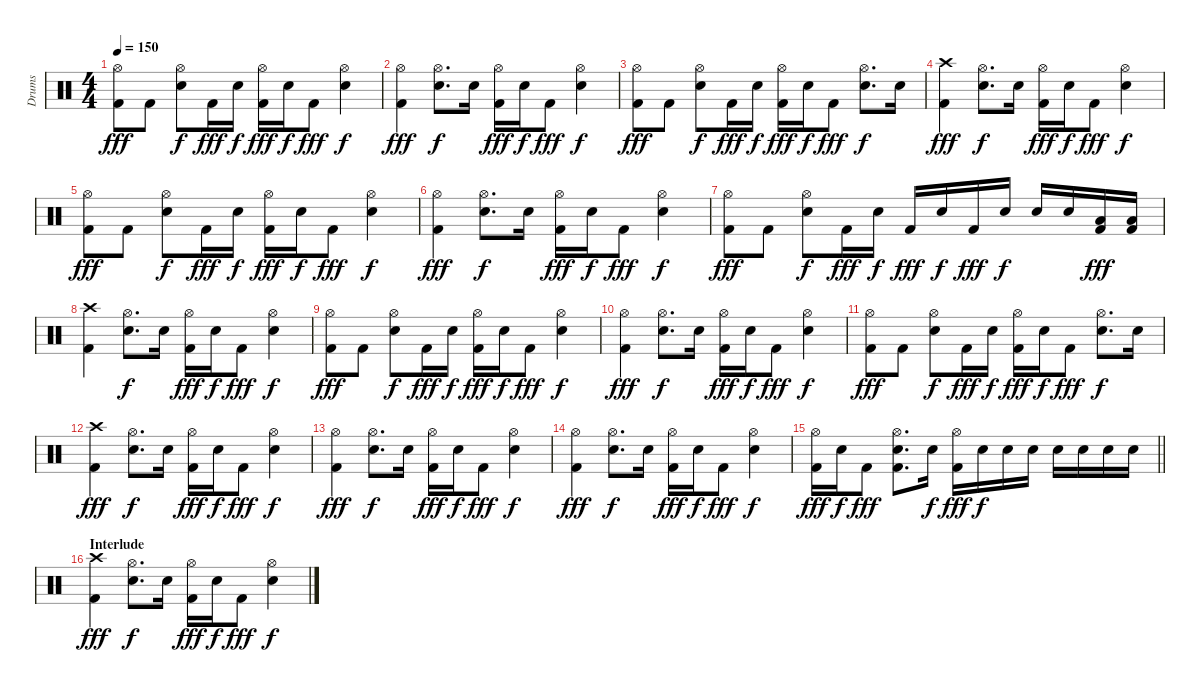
\track ("Drums" "Drums") {instrument percussion}
\staff {score}
\articulation defaults
\ts (4 4)
\tempo 150
\clef neutral
\ks c
("Hi-Hat (open)" "Kick (hit) 2").8{dy fff} "Kick (hit) 2".8 ("Hi-Hat (open)" "Snare (hit) 2").8{dy f} "Kick (hit) 2".16{dy fff} "Snare (hit) 2".16{dy f} ("Hi-Hat (open)" "Kick (hit) 2").16{dy fff} "Snare (hit) 2".16{dy f} "Kick (hit) 2".8{dy fff} ("Hi-Hat (open)" "Snare (hit) 2").4{dy f} |
("Hi-Hat (open)" "Kick (hit) 2").4{dy fff} ("Hi-Hat (open)" "Snare (hit) 2").8{d dy f} "Snare (hit) 2".16 ("Hi-Hat (open)" "Kick (hit) 2").16{dy fff} "Snare (hit) 2".16{dy f} "Kick (hit) 2".8{dy fff} ("Hi-Hat (open)" "Snare (hit) 2").4{dy f} |
("Hi-Hat (open)" "Kick (hit) 2").8{dy fff} "Kick (hit) 2".8 ("Hi-Hat (open)" "Snare (hit) 2").8{dy f} "Kick (hit) 2".16{dy fff} "Snare (hit) 2".16{dy f} ("Hi-Hat (open)" "Kick (hit) 2").16{dy fff} "Snare (hit) 2".16{dy f} "Kick (hit) 2".8{dy fff} ("Hi-Hat (open)" "Snare (hit) 2").8{d dy f} "Snare (hit) 2".16 |
("Crash high (hit)" "Kick (hit) 2").4{dy fff} ("Hi-Hat (open)" "Snare (hit) 2").8{d dy f} "Snare (hit) 2".16 ("Hi-Hat (open)" "Kick (hit) 2").16{dy fff} "Snare (hit) 2".16{dy f} "Kick (hit) 2".8{dy fff} ("Hi-Hat (open)" "Snare (hit) 2").4{dy f} |
("Hi-Hat (open)" "Kick (hit) 2").8{dy fff} "Kick (hit) 2".8 ("Hi-Hat (open)" "Snare (hit) 2").8{dy f} "Kick (hit) 2".16{dy fff} "Snare (hit) 2".16{dy f} ("Hi-Hat (open)" "Kick (hit) 2").16{dy fff} "Snare (hit) 2".16{dy f} "Kick (hit) 2".8{dy fff} ("Hi-Hat (open)" "Snare (hit) 2").4{dy f} |
("Hi-Hat (open)" "Kick (hit) 2").4{dy fff} ("Hi-Hat (open)" "Snare (hit) 2").8{d dy f} "Snare (hit) 2".16 ("Hi-Hat (open)" "Kick (hit) 2").16{dy fff} "Snare (hit) 2".16{dy f} "Kick (hit) 2".8{dy fff} ("Hi-Hat (open)" "Snare (hit) 2").4{dy f} |
("Hi-Hat (open)" "Kick (hit) 2").8{dy fff} "Kick (hit) 2".8 ("Hi-Hat (open)" "Snare (hit) 2").8{dy f} "Kick (hit) 2".16{dy fff} "Snare (hit) 2".16{dy f} "Kick (hit) 2".16{dy fff} "Snare (hit) 2".16{dy f} "Kick (hit) 2".16{dy fff} "Snare (hit) 2".16{dy f} "Snare (hit) 2".16 "Snare (hit) 2".16 ("Low Tom (hit)" "Kick (hit) 2").16{dy fff} ("Low Tom (hit)" "Kick (hit) 2").16 |
("Crash high (hit)" "Kick (hit) 2").4 ("Hi-Hat (open)" "Snare (hit) 2").8{d dy f} "Snare (hit) 2".16 ("Hi-Hat (open)" "Kick (hit) 2").16{dy fff} "Snare (hit) 2".16{dy f} "Kick (hit) 2".8{dy fff} ("Hi-Hat (open)" "Snare (hit) 2").4{dy f} |
("Hi-Hat (open)" "Kick (hit) 2").8{dy fff} "Kick (hit) 2".8 ("Hi-Hat (open)" "Snare (hit) 2").8{dy f} "Kick (hit) 2".16{dy fff} "Snare (hit) 2".16{dy f} ("Hi-Hat (open)" "Kick (hit) 2").16{dy fff} "Snare (hit) 2".16{dy f} "Kick (hit) 2".8{dy fff} ("Hi-Hat (open)" "Snare (hit) 2").4{dy f} |
("Hi-Hat (open)" "Kick (hit) 2").4{dy fff} ("Hi-Hat (open)" "Snare (hit) 2").8{d dy f} "Snare (hit) 2".16 ("Hi-Hat (open)" "Kick (hit) 2").16{dy fff} "Snare (hit) 2".16{dy f} "Kick (hit) 2".8{dy fff} ("Hi-Hat (open)" "Snare (hit) 2").4{dy f} |
("Hi-Hat (open)" "Kick (hit) 2").8{dy fff} "Kick (hit) 2".8 ("Hi-Hat (open)" "Snare (hit) 2").8{dy f} "Kick (hit) 2".16{dy fff} "Snare (hit) 2".16{dy f} ("Hi-Hat (open)" "Kick (hit) 2").16{dy fff} "Snare (hit) 2".16{dy f} "Kick (hit) 2".8{dy fff} ("Hi-Hat (open)" "Snare (hit) 2").8{d dy f} "Snare (hit) 2".16 |
("Crash high (hit)" "Kick (hit) 2").4{dy fff} ("Hi-Hat (open)" "Snare (hit) 2").8{d dy f} "Snare (hit) 2".16 ("Hi-Hat (open)" "Kick (hit) 2").16{dy fff} "Snare (hit) 2".16{dy f} "Kick (hit) 2".8{dy fff} ("Hi-Hat (open)" "Snare (hit) 2").4{dy f} |
("Hi-Hat (open)" "Kick (hit) 2").4{dy fff} ("Hi-Hat (open)" "Snare (hit) 2").8{d dy f} "Snare (hit) 2".16 ("Hi-Hat (open)" "Kick (hit) 2").16{dy fff} "Snare (hit) 2".16{dy f} "Kick (hit) 2".8{dy fff} ("Hi-Hat (open)" "Snare (hit) 2").4{dy f} |
("Hi-Hat (open)" "Kick (hit) 2").4{dy fff} ("Hi-Hat (open)" "Snare (hit) 2").8{d dy f} "Snare (hit) 2".16 ("Hi-Hat (open)" "Kick (hit) 2").16{dy fff} "Snare (hit) 2".16{dy f} "Kick (hit) 2".8{dy fff} ("Hi-Hat (open)" "Snare (hit) 2").4{dy f} |
\barLineRight lightlight
("Hi-Hat (open)" "Kick (hit) 2").16{dy fff} "Snare (hit) 2".16{dy f} "Kick (hit) 2".8{dy fff} ("Hi-Hat (open)" "Snare (hit) 2" "Kick (hit) 2").8{d} "Snare (hit) 2".16{dy f} ("Hi-Hat (open)" "Kick (hit) 2").16{dy fff} "Snare (hit) 2".16{dy f} "Snare (hit) 2".16 "Snare (hit) 2".16 "Snare (hit) 2".16 "Snare (hit) 2".16 "Snare (hit) 2".16 "Snare (hit) 2".16 |
\section ("" "Interlude")
("Crash high (hit)" "Kick (hit) 2").4{dy fff} ("Hi-Hat (open)" "Snare (hit) 2").8{d dy f} "Snare (hit) 2".16 ("Hi-Hat (open)" "Kick (hit) 2").16{dy fff} "Snare (hit) 2".16{dy f} "Kick (hit) 2".8{dy fff} ("Hi-Hat (open)" "Snare (hit) 2").4{dy f}
